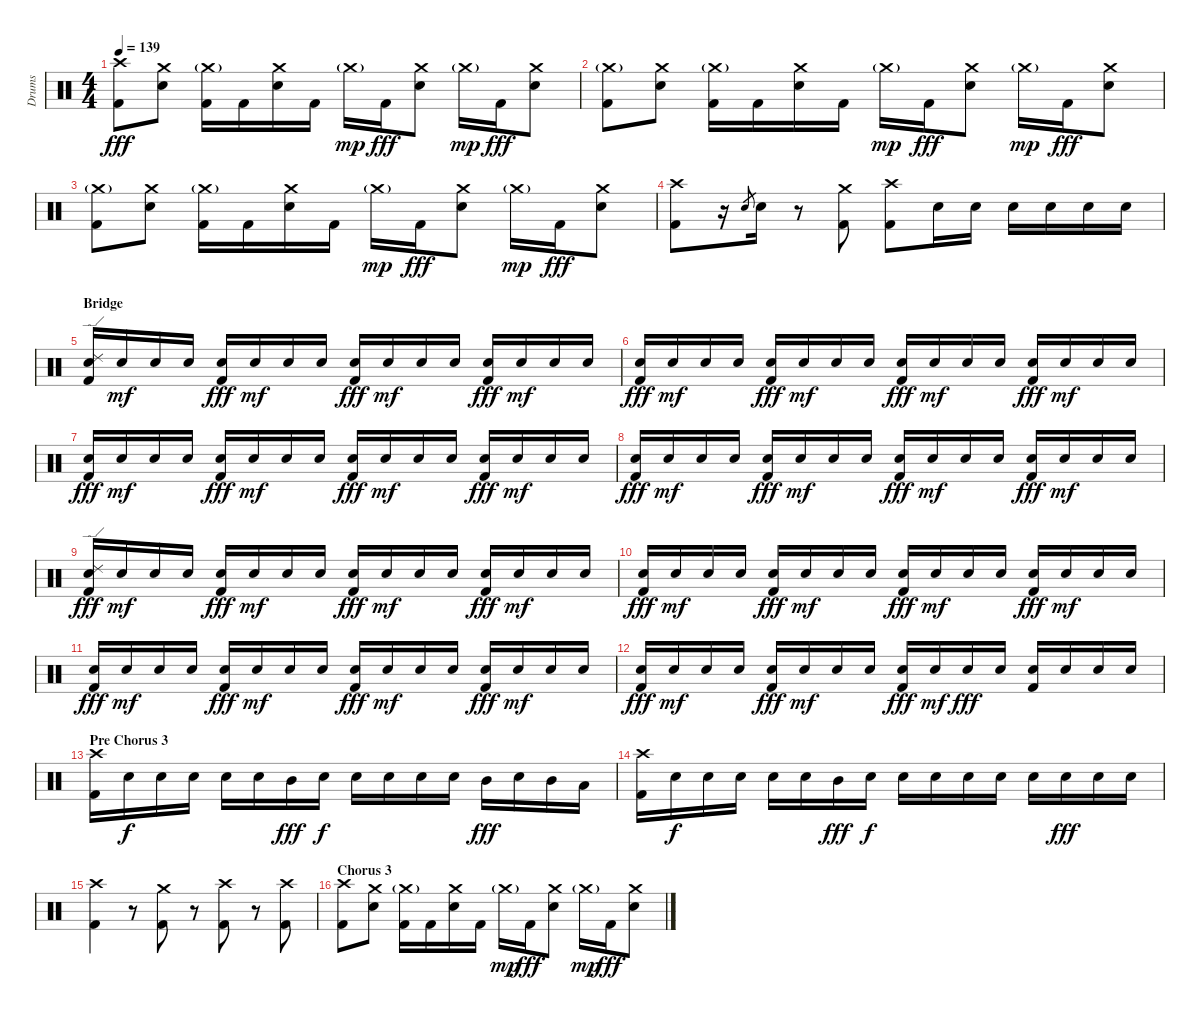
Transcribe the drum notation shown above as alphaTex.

\track ("Drums" "Drums") {instrument percussion}
\staff {score}
\articulation defaults
\ts (4 4)
\tempo 139
\clef neutral
\ks c
("Crash high (hit)" "Kick (hit) 2").8{dy fff} ("Crash medium (hit)" "Electric Snare (hit)").8 ("Crash medium (hit)"{g} "Kick (hit) 2").16 "Kick (hit) 2".16 ("Crash medium (hit)" "Electric Snare (hit)").16 "Kick (hit) 2".16 "Crash medium (hit)"{g}.16{dy mp} "Kick (hit) 2".16{dy fff} ("Crash medium (hit)" "Electric Snare (hit)").8 "Crash medium (hit)"{g}.16{dy mp} "Kick (hit) 2".16{dy fff} ("Crash medium (hit)" "Electric Snare (hit)").8 |
("Crash medium (hit)"{g} "Kick (hit) 2").8 ("Crash medium (hit)" "Electric Snare (hit)").8 ("Crash medium (hit)"{g} "Kick (hit) 2").16 "Kick (hit) 2".16 ("Crash medium (hit)" "Electric Snare (hit)").16 "Kick (hit) 2".16 "Crash medium (hit)"{g}.16{dy mp} "Kick (hit) 2".16{dy fff} ("Crash medium (hit)" "Electric Snare (hit)").8 "Crash medium (hit)"{g}.16{dy mp} "Kick (hit) 2".16{dy fff} ("Crash medium (hit)" "Electric Snare (hit)").8 |
("Crash medium (hit)"{g} "Kick (hit) 2").8 ("Crash medium (hit)" "Electric Snare (hit)").8 ("Crash medium (hit)"{g} "Kick (hit) 2").16 "Kick (hit) 2".16 ("Crash medium (hit)" "Electric Snare (hit)").16 "Kick (hit) 2".16 "Crash medium (hit)"{g}.16{dy mp} "Kick (hit) 2".16{dy fff} ("Crash medium (hit)" "Electric Snare (hit)").8 "Crash medium (hit)"{g}.16{dy mp} "Kick (hit) 2".16{dy fff} ("Crash medium (hit)" "Electric Snare (hit)").8 |
("Crash high (hit)" "Kick (hit) 2").8 r.16 "Electric Snare (hit)".8{gr} "Electric Snare (hit)".16 r.8 ("Crash medium (hit)" "Kick (hit) 2").8 ("Crash high (hit)" "Kick (hit) 2").8 "Electric Snare (hit)".16 "Electric Snare (hit)".16 "Electric Snare (hit)".16 "Electric Snare (hit)".16 "Electric Snare (hit)".16 "Electric Snare (hit)".16 |
\section ("" "Bridge")
("Ride (edge) 2" "Electric Snare (hit)" "Kick (hit) 2").16 "Electric Snare (hit)".16{dy mf} "Electric Snare (hit)".16 "Electric Snare (hit)".16 ("Electric Snare (hit)" "Kick (hit) 2").16{dy fff} "Electric Snare (hit)".16{dy mf} "Electric Snare (hit)".16 "Electric Snare (hit)".16 ("Electric Snare (hit)" "Kick (hit) 2").16{dy fff} "Electric Snare (hit)".16{dy mf} "Electric Snare (hit)".16 "Electric Snare (hit)".16 ("Electric Snare (hit)" "Kick (hit) 2").16{dy fff} "Electric Snare (hit)".16{dy mf} "Electric Snare (hit)".16 "Electric Snare (hit)".16 |
("Electric Snare (hit)" "Kick (hit) 2").16{dy fff} "Electric Snare (hit)".16{dy mf} "Electric Snare (hit)".16 "Electric Snare (hit)".16 ("Electric Snare (hit)" "Kick (hit) 2").16{dy fff} "Electric Snare (hit)".16{dy mf} "Electric Snare (hit)".16 "Electric Snare (hit)".16 ("Electric Snare (hit)" "Kick (hit) 2").16{dy fff} "Electric Snare (hit)".16{dy mf} "Electric Snare (hit)".16 "Electric Snare (hit)".16 ("Electric Snare (hit)" "Kick (hit) 2").16{dy fff} "Electric Snare (hit)".16{dy mf} "Electric Snare (hit)".16 "Electric Snare (hit)".16 |
("Electric Snare (hit)" "Kick (hit) 2").16{dy fff} "Electric Snare (hit)".16{dy mf} "Electric Snare (hit)".16 "Electric Snare (hit)".16 ("Electric Snare (hit)" "Kick (hit) 2").16{dy fff} "Electric Snare (hit)".16{dy mf} "Electric Snare (hit)".16 "Electric Snare (hit)".16 ("Electric Snare (hit)" "Kick (hit) 2").16{dy fff} "Electric Snare (hit)".16{dy mf} "Electric Snare (hit)".16 "Electric Snare (hit)".16 ("Electric Snare (hit)" "Kick (hit) 2").16{dy fff} "Electric Snare (hit)".16{dy mf} "Electric Snare (hit)".16 "Electric Snare (hit)".16 |
("Electric Snare (hit)" "Kick (hit) 2").16{dy fff} "Electric Snare (hit)".16{dy mf} "Electric Snare (hit)".16 "Electric Snare (hit)".16 ("Electric Snare (hit)" "Kick (hit) 2").16{dy fff} "Electric Snare (hit)".16{dy mf} "Electric Snare (hit)".16 "Electric Snare (hit)".16 ("Electric Snare (hit)" "Kick (hit) 2").16{dy fff} "Electric Snare (hit)".16{dy mf} "Electric Snare (hit)".16 "Electric Snare (hit)".16 ("Electric Snare (hit)" "Kick (hit) 2").16{dy fff} "Electric Snare (hit)".16{dy mf} "Electric Snare (hit)".16 "Electric Snare (hit)".16 |
("Ride (edge) 2" "Electric Snare (hit)" "Kick (hit) 2").16{dy fff} "Electric Snare (hit)".16{dy mf} "Electric Snare (hit)".16 "Electric Snare (hit)".16 ("Electric Snare (hit)" "Kick (hit) 2").16{dy fff} "Electric Snare (hit)".16{dy mf} "Electric Snare (hit)".16 "Electric Snare (hit)".16 ("Electric Snare (hit)" "Kick (hit) 2").16{dy fff} "Electric Snare (hit)".16{dy mf} "Electric Snare (hit)".16 "Electric Snare (hit)".16 ("Electric Snare (hit)" "Kick (hit) 2").16{dy fff} "Electric Snare (hit)".16{dy mf} "Electric Snare (hit)".16 "Electric Snare (hit)".16 |
("Electric Snare (hit)" "Kick (hit) 2").16{dy fff} "Electric Snare (hit)".16{dy mf} "Electric Snare (hit)".16 "Electric Snare (hit)".16 ("Electric Snare (hit)" "Kick (hit) 2").16{dy fff} "Electric Snare (hit)".16{dy mf} "Electric Snare (hit)".16 "Electric Snare (hit)".16 ("Electric Snare (hit)" "Kick (hit) 2").16{dy fff} "Electric Snare (hit)".16{dy mf} "Electric Snare (hit)".16 "Electric Snare (hit)".16 ("Electric Snare (hit)" "Kick (hit) 2").16{dy fff} "Electric Snare (hit)".16{dy mf} "Electric Snare (hit)".16 "Electric Snare (hit)".16 |
("Electric Snare (hit)" "Kick (hit) 2").16{dy fff} "Electric Snare (hit)".16{dy mf} "Electric Snare (hit)".16 "Electric Snare (hit)".16 ("Electric Snare (hit)" "Kick (hit) 2").16{dy fff} "Electric Snare (hit)".16{dy mf} "Electric Snare (hit)".16 "Electric Snare (hit)".16 ("Electric Snare (hit)" "Kick (hit) 2").16{dy fff} "Electric Snare (hit)".16{dy mf} "Electric Snare (hit)".16 "Electric Snare (hit)".16 ("Electric Snare (hit)" "Kick (hit) 2").16{dy fff} "Electric Snare (hit)".16{dy mf} "Electric Snare (hit)".16 "Electric Snare (hit)".16 |
("Electric Snare (hit)" "Kick (hit) 2").16{dy fff} "Electric Snare (hit)".16{dy mf} "Electric Snare (hit)".16 "Electric Snare (hit)".16 ("Electric Snare (hit)" "Kick (hit) 2").16{dy fff} "Electric Snare (hit)".16{dy mf} "Electric Snare (hit)".16 "Electric Snare (hit)".16 ("Electric Snare (hit)" "Kick (hit) 2").16{dy fff} "Electric Snare (hit)".16{dy mf} "Electric Snare (hit)".16{dy fff} "Electric Snare (hit)".16 ("Electric Snare (hit)" "Kick (hit) 2").16 "Electric Snare (hit)".16 "Electric Snare (hit)".16 "Electric Snare (hit)".16 |
\section ("" "Pre Chorus 3")
("Crash high (hit)" "Kick (hit) 2").16 "Electric Snare (hit)".16{dy f} "Electric Snare (hit)".16 "Electric Snare (hit)".16 "Electric Snare (hit)".16 "Electric Snare (hit)".16 "Mid Tom (hit)".16{dy fff} "Electric Snare (hit)".16{dy f} "Electric Snare (hit)".16 "Electric Snare (hit)".16 "Electric Snare (hit)".16 "Electric Snare (hit)".16 "Mid Tom (hit)".16{dy fff} "Electric Snare (hit)".16 "Mid Tom (hit)".16 "Low Tom (hit)".16 |
("Crash high (hit)" "Kick (hit) 2").16 "Electric Snare (hit)".16{dy f} "Electric Snare (hit)".16 "Electric Snare (hit)".16 "Electric Snare (hit)".16 "Electric Snare (hit)".16 "Mid Tom (hit)".16{dy fff} "Electric Snare (hit)".16{dy f} "Electric Snare (hit)".16 "Electric Snare (hit)".16 "Electric Snare (hit)".16 "Electric Snare (hit)".16 "Electric Snare (hit)".16 "Electric Snare (hit)".16{dy fff} "Electric Snare (hit)".16 "Electric Snare (hit)".16 |
("Crash high (hit)" "Kick (hit) 2").4 r.8 ("Crash medium (hit)" "Kick (hit) 2").8 r.8 ("Crash high (hit)" "Kick (hit) 2").8 r.8 ("Crash high (hit)" "Kick (hit) 2").8 |
\section ("" "Chorus 3")
("Crash high (hit)" "Kick (hit) 2").8 ("Crash medium (hit)" "Electric Snare (hit)").8 ("Crash medium (hit)"{g} "Kick (hit) 2").16 "Kick (hit) 2".16 ("Crash medium (hit)" "Electric Snare (hit)").16 "Kick (hit) 2".16 "Crash medium (hit)"{g}.16{dy mp} "Kick (hit) 2".16{dy fff} ("Crash medium (hit)" "Electric Snare (hit)").8 "Crash medium (hit)"{g}.16{dy mp} "Kick (hit) 2".16{dy fff} ("Crash medium (hit)" "Electric Snare (hit)").8
